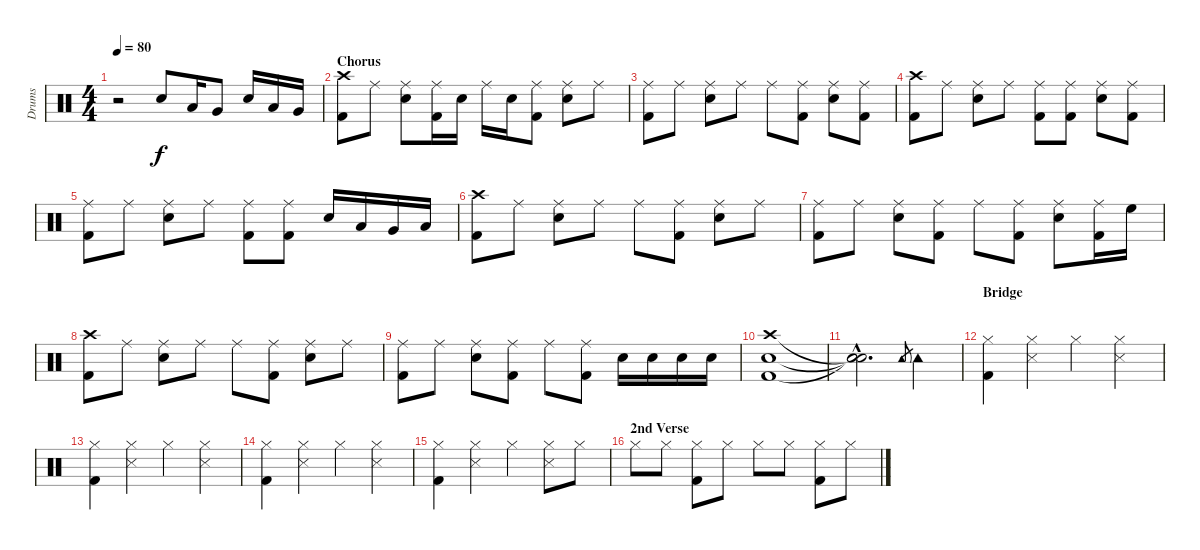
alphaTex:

\track ("Drums" "Drums") {instrument percussion}
\staff {score}
\articulation defaults
\ts (4 4)
\tempo 80
\clef neutral
\ks c
r.2{dy f} "Electric Snare (hit)".8 "Low Tom (hit)".16 "Very Low Tom (hit)".8 "Electric Snare (hit)".16 "Low Tom (hit)".16 "Very Low Tom (hit)".16 |
\section ("" "Chorus")
("Crash high (hit)" "Kick (hit) 2").8 "Ride (middle)".8 ("Ride (middle)" "Electric Snare (hit)").8 ("Ride (middle)" "Kick (hit) 2").16 "Electric Snare (hit)".16 "Ride (middle)".16 "Electric Snare (hit)".16 ("Ride (middle)" "Kick (hit) 2").8 ("Ride (middle)" "Electric Snare (hit)").8 "Ride (middle)".8 |
("Ride (middle)" "Kick (hit) 2").8 "Ride (middle)".8 ("Ride (middle)" "Electric Snare (hit)").8 "Ride (middle)".8 "Ride (middle)".8 ("Ride (middle)" "Kick (hit) 2").8 ("Ride (middle)" "Electric Snare (hit)").8 ("Ride (middle)" "Kick (hit) 2").8 |
("Crash high (hit)" "Kick (hit) 2").8 "Ride (middle)".8 ("Ride (middle)" "Electric Snare (hit)").8 "Ride (middle)".8 ("Ride (middle)" "Kick (hit) 2").8 ("Ride (middle)" "Kick (hit) 2").8 ("Ride (middle)" "Electric Snare (hit)").8 ("Ride (middle)" "Kick (hit) 2").8 |
("Ride (middle)" "Kick (hit) 2").8 "Ride (middle)".8 ("Ride (middle)" "Electric Snare (hit)").8 "Ride (middle)".8 ("Ride (middle)" "Kick (hit) 2").8 ("Ride (middle)" "Kick (hit) 2").8 "Electric Snare (hit)".16 "Low Tom (hit)".16 "Very Low Tom (hit)".16 "Low Floor Tom (hit)".16 |
("Crash high (hit)" "Kick (hit) 2").8 "Ride (middle)".8 ("Ride (middle)" "Electric Snare (hit)").8 "Ride (middle)".8 "Ride (middle)".8 ("Ride (middle)" "Kick (hit) 2").8 ("Ride (middle)" "Electric Snare (hit)").8 "Ride (middle)".8 |
("Ride (middle)" "Kick (hit) 2").8 "Ride (middle)".8 ("Ride (middle)" "Electric Snare (hit)").8 ("Ride (middle)" "Kick (hit) 2").8 "Ride (middle)".8 ("Ride (middle)" "Kick (hit) 2").8 ("Ride (middle)" "Electric Snare (hit)").8 ("Ride (middle)" "Kick (hit) 2").16 "High Floor Tom (hit)".16 |
("Crash high (hit)" "Kick (hit) 2").8 "Ride (middle)".8 ("Ride (middle)" "Electric Snare (hit)").8 "Ride (middle)".8 "Ride (middle)".8 ("Ride (middle)" "Kick (hit) 2").8 ("Ride (middle)" "Electric Snare (hit)").8 "Ride (middle)".8 |
("Ride (middle)" "Kick (hit) 2").8 "Ride (middle)".8 ("Ride (middle)" "Electric Snare (hit)").8 ("Ride (middle)" "Kick (hit) 2").8 "Ride (middle)".8 ("Ride (middle)" "Kick (hit) 2").8 "Electric Snare (hit)".16 "Electric Snare (hit)".16 "Electric Snare (hit)".16 "Electric Snare (hit)".16 |
("Electric Snare (hit)" "Crash high (hit)" "Kick (hit) 2").1 |
("Snare (hit)"{hac t} "Snare (hit)"{hac t} "Snare (hit)"{hac t}).2{d} "Tambourine (hit)".8{gr} "Tambourine (hit)".4 |
\section ("" "Bridge")
("Hi-Hat (closed)" "Kick (hit) 2").4 ("Hi-Hat (closed)" "Snare (side stick) 3").4 "Hi-Hat (closed)".4 ("Hi-Hat (closed)" "Snare (side stick) 3").4 |
("Hi-Hat (closed)" "Kick (hit) 2").4 ("Hi-Hat (closed)" "Snare (side stick) 3").4 "Hi-Hat (closed)".4 ("Hi-Hat (closed)" "Snare (side stick) 3").4 |
("Hi-Hat (closed)" "Kick (hit) 2").4 ("Hi-Hat (closed)" "Snare (side stick) 3").4 "Hi-Hat (closed)".4 ("Hi-Hat (closed)" "Snare (side stick) 3").4 |
("Hi-Hat (closed)" "Kick (hit) 2").4 ("Hi-Hat (closed)" "Snare (side stick) 3").4 "Hi-Hat (closed)".4 ("Hi-Hat (closed)" "Snare (side stick) 3").8 "Hi-Hat (closed)".8 |
\section ("" "2nd Verse")
"Hi-Hat (closed)".8 "Hi-Hat (closed)".8 ("Hi-Hat (closed)" "Kick (hit) 2").8 "Hi-Hat (closed)".8 "Hi-Hat (closed)".8 "Hi-Hat (closed)".8 ("Hi-Hat (closed)" "Kick (hit) 2").8 "Hi-Hat (closed)".8
